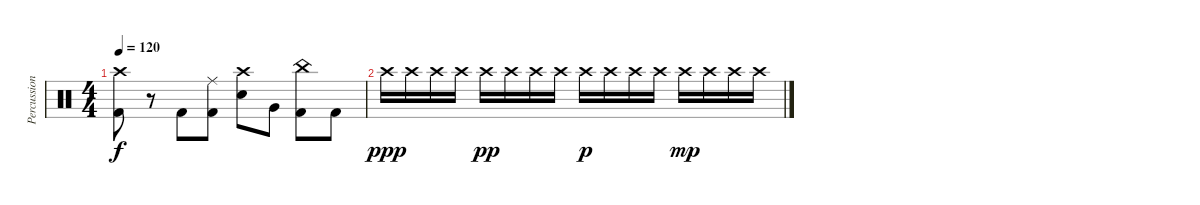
\track ("Percussion" "Percussion") {instrument percussion}
\staff {score}
\articulation defaults
\ts (4 4)
\tempo 120
\clef neutral
\ks c
("Crash high (hit)" "Kick (hit) 2").8{dy f} r.8 "Kick (hit) 2".8 ("Ride (middle)" "Kick (hit) 2").8 ("Crash high (hit)" "Electric Snare (hit)").8 "Very Low Tom (hit)".8 ("China (hit)" "Kick (hit) 2").8 "Kick (hit) 2".8 |
"Crash high (hit)".16{dy ppp} "Crash high (hit)".16 "Crash high (hit)".16 "Crash high (hit)".16 "Crash high (hit)".16{dy pp} "Crash high (hit)".16 "Crash high (hit)".16 "Crash high (hit)".16 "Crash high (hit)".16{dy p} "Crash high (hit)".16 "Crash high (hit)".16 "Crash high (hit)".16 "Crash high (hit)".16{dy mp} "Crash high (hit)".16 "Crash high (hit)".16 "Crash high (hit)".16
